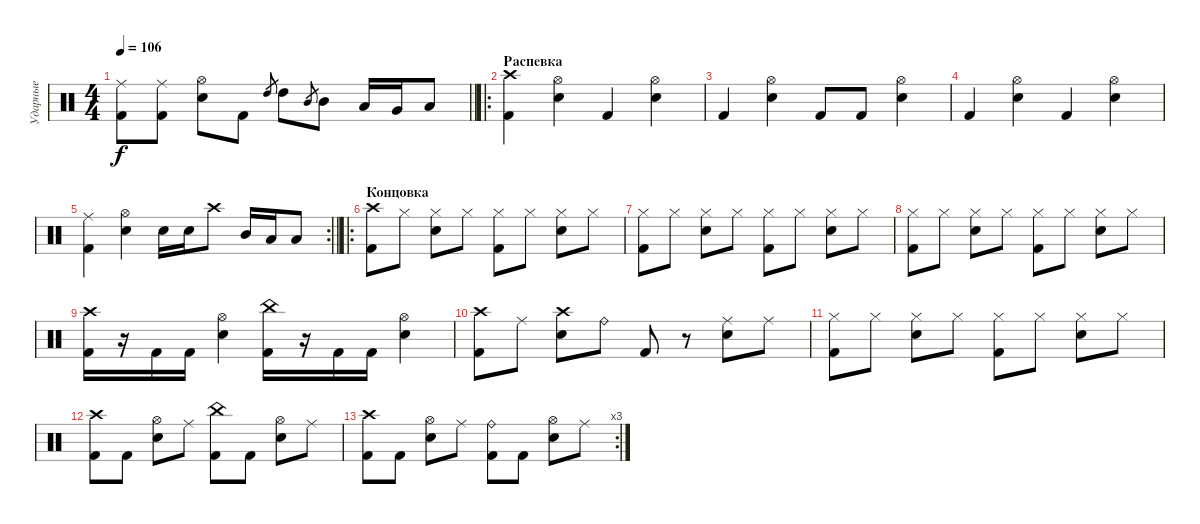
\track ("Ударные" "Ударные") {instrument percussion}
\staff {score}
\articulation defaults
\ts (4 4)
\tempo 106
\clef neutral
\barLineRight lightlight
\ks c
("Kick (hit) 2" "Ride (middle)").8{dy f} ("Kick (hit) 2" "Ride (middle)").8 ("Electric Snare (hit)" "Hi-Hat (open)").8 "Kick (hit) 2".8 "High Tom (hit)".8{gr} "High Tom (hit)".8 "Mid Tom (hit)".8{gr} "Mid Tom (hit)".8 "Low Tom (hit)".16 "Very Low Tom (hit)".16 "Low Floor Tom (hit)".8 |
\ro
\section ("" "Распевка")
("Crash high (hit)" "Kick (hit) 2").4 ("Electric Snare (hit)" "Hi-Hat (open)").4 "Kick (hit) 2".4 ("Electric Snare (hit)" "Hi-Hat (open)").4 |
"Kick (hit) 2".4 ("Electric Snare (hit)" "Hi-Hat (open)").4 "Kick (hit) 2".8 "Kick (hit) 2".8 ("Electric Snare (hit)" "Hi-Hat (open)").4 |
"Kick (hit) 2".4 ("Electric Snare (hit)" "Hi-Hat (open)").4 "Kick (hit) 2".4 ("Electric Snare (hit)" "Hi-Hat (open)").4 |
\rc 2
\barLineRight lightlight
("Ride (middle)" "Kick (hit) 2").4 ("Electric Snare (hit)" "Hi-Hat (open)").4 "Electric Snare (hit)".16 "Electric Snare (hit)".16 "Crash high (hit)".8 "Mid Tom (hit)".16 "Low Tom (hit)".16 "Low Floor Tom (hit)".8 |
\ro
\section ("" "Концовка")
("Kick (hit) 2" "Crash high (hit)").8 "Hi-Hat (closed)".8 ("Electric Snare (hit)" "Hi-Hat (closed)").8 "Hi-Hat (closed)".8 ("Kick (hit) 2" "Hi-Hat (closed)").8 "Hi-Hat (closed)".8 ("Electric Snare (hit)" "Hi-Hat (closed)").8 "Hi-Hat (closed)".8 |
("Kick (hit) 2" "Hi-Hat (closed)").8 "Hi-Hat (closed)".8 ("Electric Snare (hit)" "Hi-Hat (closed)").8 "Hi-Hat (closed)".8 ("Kick (hit) 2" "Hi-Hat (closed)").8 "Hi-Hat (closed)".8 ("Electric Snare (hit)" "Hi-Hat (closed)").8 "Hi-Hat (closed)".8 |
("Kick (hit) 2" "Hi-Hat (closed)").8 "Hi-Hat (closed)".8 ("Electric Snare (hit)" "Hi-Hat (closed)").8 "Hi-Hat (closed)".8 ("Kick (hit) 2" "Hi-Hat (closed)").8 "Hi-Hat (closed)".8 ("Electric Snare (hit)" "Hi-Hat (closed)").8 "Hi-Hat (closed)".8 |
("Crash high (hit)" "Kick (hit) 2").16 r.16 "Kick (hit) 2".16 "Kick (hit) 2".16 ("Hi-Hat (open)" "Electric Snare (hit)").4 ("China (hit)" "Kick (hit) 2").16 r.16 "Kick (hit) 2".16 "Kick (hit) 2".16 ("Hi-Hat (open)" "Electric Snare (hit)").4 |
("Kick (hit) 2" "Crash high (hit)").8 "Ride (middle)".8 ("Electric Snare (hit)" "Crash high (hit)").8 "Ride (bell)".8 "Kick (hit) 2".8 r.8 ("Electric Snare (hit)" "Ride (middle)").8 "Ride (middle)".8 |
("Kick (hit) 2" "Hi-Hat (closed)").8 "Hi-Hat (closed)".8 ("Electric Snare (hit)" "Hi-Hat (closed)").8 "Hi-Hat (closed)".8 ("Kick (hit) 2" "Hi-Hat (closed)").8 "Hi-Hat (closed)".8 ("Electric Snare (hit)" "Hi-Hat (closed)").8 "Hi-Hat (closed)".8 |
("Kick (hit) 2" "Crash high (hit)").8 "Kick (hit) 2".8 ("Electric Snare (hit)" "Hi-Hat (open)").8 "Ride (middle)".8 ("Kick (hit) 2" "China (hit)").8 "Kick (hit) 2".8 ("Electric Snare (hit)" "Hi-Hat (open)").8 "Ride (middle)".8 |
\rc 3
("Kick (hit) 2" "Crash high (hit)").8 "Kick (hit) 2".8 ("Electric Snare (hit)" "Hi-Hat (open)").8 "Ride (middle)".8 ("Kick (hit) 2" "Ride (bell)").8 "Kick (hit) 2".8 ("Electric Snare (hit)" "Hi-Hat (open)").8 "Ride (middle)".8
